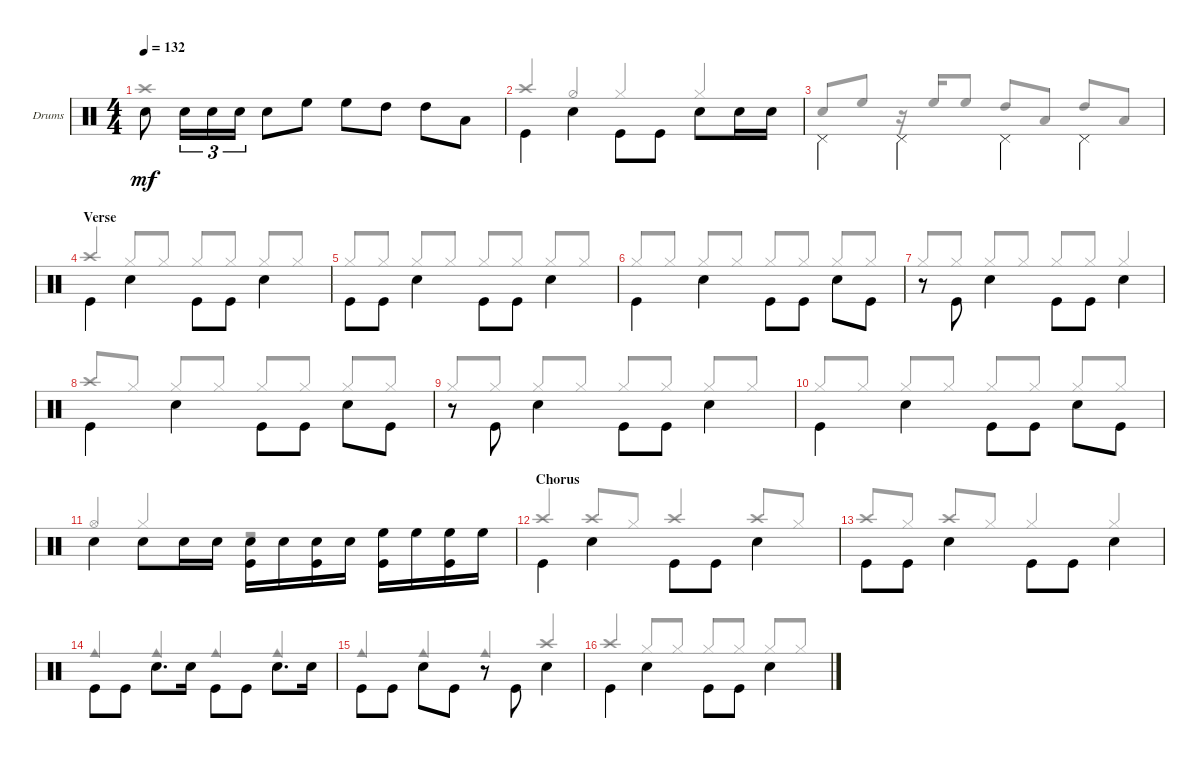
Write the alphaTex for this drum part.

\defaultSystemsLayout 4
\bracketExtendMode groupsimilarinstruments
\firstSystemTrackNameOrientation horizontal
\otherSystemsTrackNameOrientation horizontal
\track ("PETER CRISS" "Drums") {solo instrument percussion}
\staff {score}
\articulation defaults
\voice
\ts (4 4)
\tempo 132
\clef neutral
\ks aminor "Snare (hit) 2".8{dy mf beam invert} "Snare (hit) 2".16{tu (3 2) beam invert} "Snare (hit) 2".16{tu (3 2)} "Snare (hit) 2".16{tu (3 2)} "Snare (hit) 2".8{beam invert} "High Floor Tom (hit)".8 "High Floor Tom (hit)".8{beam invert} "High Tom (hit)".8 "High Tom (hit)".8{beam invert} "Low Tom (hit)".8
|
"Kick (hit)".4{beam invert} "Snare (hit) 2".4{beam invert} "Kick (hit)".8{beam invert} "Kick (hit)".8 "Snare (hit) 2".8{beam invert} "Snare (hit) 2".16 "Snare (hit) 2".16 |
"Pedal Hi-Hat (hit)".4{beam invert} "Pedal Hi-Hat (hit)".4{beam invert} "Pedal Hi-Hat (hit)".4{beam invert} "Pedal Hi-Hat (hit)".4{beam invert} |
\section ("" "Verse")
"Kick (hit)".4{beam invert} "Snare (hit) 2".4{beam invert} "Kick (hit)".8{beam invert} "Kick (hit)".8 "Snare (hit) 2".4{beam invert} |
"Kick (hit)".8{beam invert} "Kick (hit)".8 "Snare (hit) 2".4{beam invert} "Kick (hit)".8{beam invert} "Kick (hit)".8 "Snare (hit) 2".4{beam invert} |
"Kick (hit)".4{beam invert} "Snare (hit) 2".4{beam invert} "Kick (hit)".8{beam invert} "Kick (hit)".8 "Snare (hit) 2".8{beam invert} "Kick (hit)".8 |
r.8 "Kick (hit)".8{beam invert} "Snare (hit) 2".4{beam invert} "Kick (hit)".8{beam invert} "Kick (hit)".8 "Snare (hit) 2".4{beam invert} |
"Kick (hit)".4{beam invert} "Snare (hit) 2".4{beam invert} "Kick (hit)".8{beam invert} "Kick (hit)".8 "Snare (hit) 2".8{beam invert} "Kick (hit)".8 |
r.8 "Kick (hit)".8{beam invert} "Snare (hit) 2".4{beam invert} "Kick (hit)".8{beam invert} "Kick (hit)".8 "Snare (hit) 2".4{beam invert} |
"Kick (hit)".4{beam invert} "Snare (hit) 2".4{beam invert} "Kick (hit)".8{beam invert} "Kick (hit)".8 "Snare (hit) 2".8{beam invert} "Kick (hit)".8 |
"Snare (hit) 2".4{beam invert} "Snare (hit) 2".8{beam invert} "Snare (hit) 2".16 "Snare (hit) 2".16 ("Snare (hit) 2" "Kick (hit)").16{beam invert} "Snare (hit) 2".16 ("Snare (hit) 2" "Kick (hit)").16 "Snare (hit) 2".16 ("High Floor Tom (hit)" "Kick (hit)").16{beam invert} "High Floor Tom (hit)".16 ("High Floor Tom (hit)" "Kick (hit)").16 "High Floor Tom (hit)".16 |
\section ("" "Chorus")
"Kick (hit)".4{beam invert} "Snare (hit) 2".4{beam invert} "Kick (hit)".8{beam invert} "Kick (hit)".8 "Snare (hit) 2".4{beam invert} |
"Kick (hit)".8{beam invert} "Kick (hit)".8 "Snare (hit) 2".4{beam invert} "Kick (hit)".8{beam invert} "Kick (hit)".8 "Snare (hit) 2".4{beam invert} |
"Kick (hit)".8{beam invert} "Kick (hit)".8 "Snare (hit) 2".8{d beam invert} "Snare (hit) 2".16 "Kick (hit)".8{beam invert} "Kick (hit)".8 "Snare (hit) 2".8{d beam invert} "Snare (hit) 2".16 |
"Kick (hit)".8{beam invert} "Kick (hit)".8 "Snare (hit) 2".8{beam invert} "Kick (hit)".8 r.8 "Kick (hit)".8{beam invert} "Snare (hit) 2".4{beam invert} |
"Kick (hit)".4{beam invert} "Snare (hit) 2".4{beam invert} "Kick (hit)".8{beam invert} "Kick (hit)".8 "Snare (hit) 2".4{beam invert}
\voice
\clef neutral
\ottava regular
\simile none
\ks aminor "Crash high (hit)".1{dy mf beam invert}
|
"Crash high (hit)".4{beam invert} "Hi-Hat (half)".4{beam invert} "Hi-Hat (closed)".4{beam invert} "Hi-Hat (closed)".4{beam invert} |
"Snare (hit) 2".8{beam invert} "High Floor Tom (hit)".8 r.16{beam invert} "High Floor Tom (hit)".16{beam invert} "High Floor Tom (hit)".8 "High Tom (hit)".8{beam invert} "Low Tom (hit)".8 "High Tom (hit)".8{beam invert} "Low Tom (hit)".8 |
"Crash high (hit)".4{beam invert} "Hi-Hat (closed)".8{beam invert} "Hi-Hat (closed)".8 "Hi-Hat (closed)".8{beam invert} "Hi-Hat (closed)".8 "Hi-Hat (closed)".8{beam invert} "Hi-Hat (closed)".8 |
"Hi-Hat (closed)".8{beam invert} "Hi-Hat (closed)".8 "Hi-Hat (closed)".8{beam invert} "Hi-Hat (closed)".8 "Hi-Hat (closed)".8{beam invert} "Hi-Hat (closed)".8 "Hi-Hat (closed)".8{beam invert} "Hi-Hat (closed)".8 |
"Hi-Hat (closed)".8{beam invert} "Hi-Hat (closed)".8 "Hi-Hat (closed)".8{beam invert} "Hi-Hat (closed)".8 "Hi-Hat (closed)".8{beam invert} "Hi-Hat (closed)".8 "Hi-Hat (closed)".8{beam invert} "Hi-Hat (closed)".8 |
"Hi-Hat (closed)".8{beam invert} "Hi-Hat (closed)".8 "Hi-Hat (closed)".8{beam invert} "Hi-Hat (closed)".8 "Hi-Hat (closed)".8{beam invert} "Hi-Hat (closed)".8 "Hi-Hat (closed)".4{beam invert} |
"Crash high (hit)".8{beam invert} "Hi-Hat (closed)".8 "Hi-Hat (closed)".8{beam invert} "Hi-Hat (closed)".8 "Hi-Hat (closed)".8{beam invert} "Hi-Hat (closed)".8 "Hi-Hat (closed)".8{beam invert} "Hi-Hat (closed)".8 |
"Hi-Hat (closed)".8{beam invert} "Hi-Hat (closed)".8 "Hi-Hat (closed)".8{beam invert} "Hi-Hat (closed)".8 "Hi-Hat (closed)".8{beam invert} "Hi-Hat (closed)".8 "Hi-Hat (closed)".8{beam invert} "Hi-Hat (closed)".8 |
"Hi-Hat (closed)".8{beam invert} "Hi-Hat (closed)".8 "Hi-Hat (closed)".8{beam invert} "Hi-Hat (closed)".8 "Hi-Hat (closed)".8{beam invert} "Hi-Hat (closed)".8 "Hi-Hat (closed)".8{beam invert} "Hi-Hat (closed)".8 |
"Hi-Hat (open)".4{beam invert} "Hi-Hat (closed)".4{beam invert} r.2 |
"Crash high (hit)".4{beam invert} "Crash high (hit)".8{beam invert} "Hi-Hat (closed)".8 "Crash high (hit)".4{beam invert} "Crash high (hit)".8 "Hi-Hat (closed)".8{beam invert} |
"Crash high (hit)".8{beam invert} "Hi-Hat (closed)".8 "Crash high (hit)".8{beam invert} "Hi-Hat (closed)".8 "Hi-Hat (closed)".4{beam invert} "Hi-Hat (closed)".4{beam invert} |
"Cowbell medium (hit)".4{beam invert} "Cowbell medium (hit)".4{beam invert} "Cowbell medium (hit)".4{beam invert} "Cowbell medium (hit)".4{beam invert} |
"Cowbell medium (hit)".4{beam invert} "Cowbell medium (hit)".4{beam invert} "Cowbell medium (hit)".4{beam invert} "Crash high (hit)".4{beam invert} |
"Crash high (hit)".4{beam invert} "Hi-Hat (closed)".8{beam invert} "Hi-Hat (closed)".8 "Hi-Hat (closed)".8{beam invert} "Hi-Hat (closed)".8 "Hi-Hat (closed)".8{beam invert} "Hi-Hat (closed)".8
